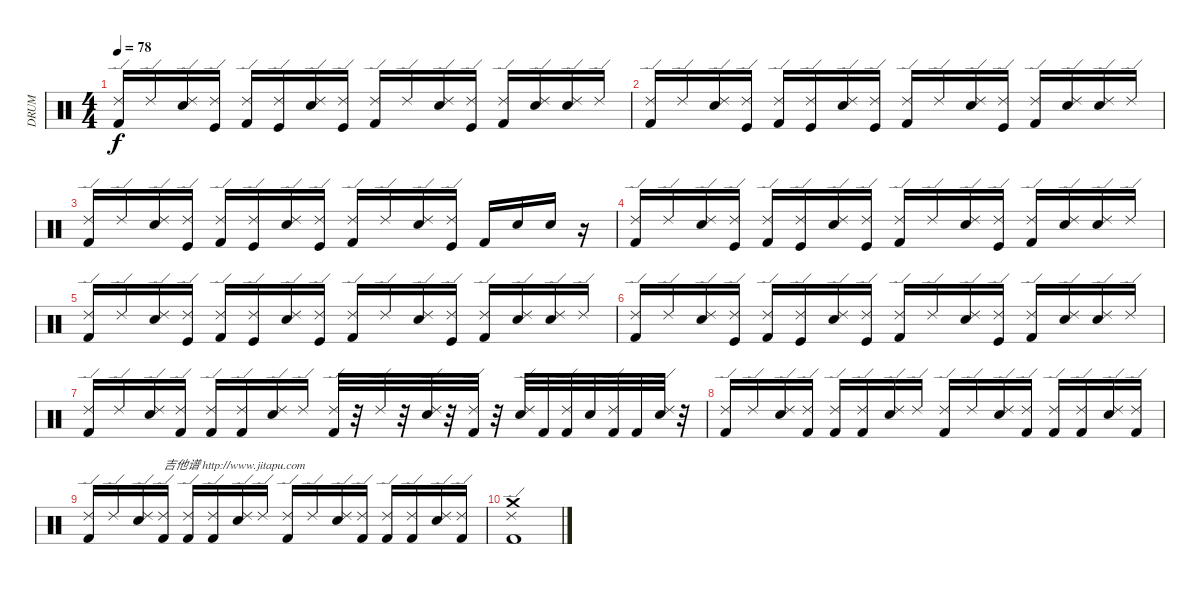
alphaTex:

\track ("DRUM" "DRUM") {instrument percussion}
\staff {score}
\articulation defaults
\ts (4 4)
\tempo 78
\clef neutral
\ks c
("Kick (hit) 2" "Ride (edge) 2").16{dy f} "Ride (edge) 2".16 ("Snare (hit) 2" "Ride (edge) 2").16 ("Kick (hit)" "Ride (edge) 2").16 ("Kick (hit) 2" "Ride (edge) 2").16 ("Kick (hit)" "Ride (edge) 2").16 ("Snare (hit) 2" "Ride (edge) 2").16 ("Kick (hit)" "Ride (edge) 2").16 ("Kick (hit) 2" "Ride (edge) 2").16 "Ride (edge) 2".16 ("Snare (hit) 2" "Ride (edge) 2").16 ("Kick (hit)" "Ride (edge) 2").16 ("Kick (hit) 2" "Ride (edge) 2").16 ("Snare (hit) 2" "Ride (edge) 2").16 ("Snare (hit) 2" "Ride (edge) 2").16 "Ride (edge) 2".16 |
("Kick (hit) 2" "Ride (edge) 2").16 "Ride (edge) 2".16 ("Snare (hit) 2" "Ride (edge) 2").16 ("Kick (hit)" "Ride (edge) 2").16 ("Kick (hit) 2" "Ride (edge) 2").16 ("Kick (hit)" "Ride (edge) 2").16 ("Snare (hit) 2" "Ride (edge) 2").16 ("Kick (hit)" "Ride (edge) 2").16 ("Kick (hit) 2" "Ride (edge) 2").16 "Ride (edge) 2".16 ("Snare (hit) 2" "Ride (edge) 2").16 ("Kick (hit)" "Ride (edge) 2").16 ("Kick (hit) 2" "Ride (edge) 2").16 ("Snare (hit) 2" "Ride (edge) 2").16 ("Snare (hit) 2" "Ride (edge) 2").16 "Ride (edge) 2".16 |
("Kick (hit) 2" "Ride (edge) 2").16 "Ride (edge) 2".16 ("Snare (hit) 2" "Ride (edge) 2").16 ("Kick (hit)" "Ride (edge) 2").16 ("Kick (hit) 2" "Ride (edge) 2").16 ("Kick (hit)" "Ride (edge) 2").16 ("Snare (hit) 2" "Ride (edge) 2").16 ("Kick (hit)" "Ride (edge) 2").16 ("Kick (hit) 2" "Ride (edge) 2").16 "Ride (edge) 2".16 ("Snare (hit) 2" "Ride (edge) 2").16 ("Kick (hit)" "Ride (edge) 2").16 "Kick (hit) 2".16 "Snare (hit) 2".16 "Snare (hit) 2".16 r.16 |
("Kick (hit) 2" "Ride (edge) 2").16 "Ride (edge) 2".16 ("Snare (hit) 2" "Ride (edge) 2").16 ("Kick (hit)" "Ride (edge) 2").16 ("Kick (hit) 2" "Ride (edge) 2").16 ("Kick (hit)" "Ride (edge) 2").16 ("Snare (hit) 2" "Ride (edge) 2").16 ("Kick (hit)" "Ride (edge) 2").16 ("Kick (hit) 2" "Ride (edge) 2").16 "Ride (edge) 2".16 ("Snare (hit) 2" "Ride (edge) 2").16 ("Kick (hit)" "Ride (edge) 2").16 ("Kick (hit) 2" "Ride (edge) 2").16 ("Snare (hit) 2" "Ride (edge) 2").16 ("Snare (hit) 2" "Ride (edge) 2").16 "Ride (edge) 2".16 |
("Kick (hit) 2" "Ride (edge) 2").16 "Ride (edge) 2".16 ("Snare (hit) 2" "Ride (edge) 2").16 ("Kick (hit)" "Ride (edge) 2").16 ("Kick (hit) 2" "Ride (edge) 2").16 ("Kick (hit)" "Ride (edge) 2").16 ("Snare (hit) 2" "Ride (edge) 2").16 ("Kick (hit)" "Ride (edge) 2").16 ("Kick (hit) 2" "Ride (edge) 2").16 "Ride (edge) 2".16 ("Snare (hit) 2" "Ride (edge) 2").16 ("Kick (hit)" "Ride (edge) 2").16 ("Kick (hit) 2" "Ride (edge) 2").16 ("Snare (hit) 2" "Ride (edge) 2").16 ("Snare (hit) 2" "Ride (edge) 2").16 "Ride (edge) 2".16 |
("Kick (hit) 2" "Ride (edge) 2").16 "Ride (edge) 2".16 ("Snare (hit) 2" "Ride (edge) 2").16 ("Kick (hit)" "Ride (edge) 2").16 ("Kick (hit) 2" "Ride (edge) 2").16 ("Kick (hit)" "Ride (edge) 2").16 ("Snare (hit) 2" "Ride (edge) 2").16 ("Kick (hit)" "Ride (edge) 2").16 ("Kick (hit) 2" "Ride (edge) 2").16 "Ride (edge) 2".16 ("Snare (hit) 2" "Ride (edge) 2").16 ("Kick (hit)" "Ride (edge) 2").16 ("Kick (hit) 2" "Ride (edge) 2").16 ("Snare (hit) 2" "Ride (edge) 2").16 ("Snare (hit) 2" "Ride (edge) 2").16 "Ride (edge) 2".16 |
("Kick (hit) 2" "Ride (edge) 2").16 "Ride (edge) 2".16 ("Snare (hit) 2" "Ride (edge) 2").16 ("Kick (hit) 2" "Ride (edge) 2").16 ("Kick (hit) 2" "Ride (edge) 2").16 ("Kick (hit) 2" "Ride (edge) 2").16 ("Snare (hit) 2" "Ride (edge) 2").16 "Ride (edge) 2".16 ("Kick (hit) 2" "Ride (edge) 2").32 r.32 "Ride (edge) 2".32 r.32 ("Snare (hit) 2" "Ride (edge) 2").32 r.32 ("Kick (hit) 2" "Ride (edge) 2").32 r.32 ("Snare (hit) 2" "Ride (edge) 2").32 "Kick (hit) 2".32 ("Kick (hit) 2" "Ride (edge) 2").32 "Snare (hit) 2".32 ("Kick (hit) 2" "Ride (edge) 2").32 "Kick (hit) 2".32 ("Snare (hit) 2" "Ride (edge) 2").32 r.32 |
("Kick (hit) 2" "Ride (edge) 2").16{volume 3} "Ride (edge) 2".16 ("Snare (hit) 2" "Ride (edge) 2").16 ("Kick (hit) 2" "Ride (edge) 2").16 ("Kick (hit) 2" "Ride (edge) 2").16 ("Kick (hit) 2" "Ride (edge) 2").16 ("Snare (hit) 2" "Ride (edge) 2").16 "Ride (edge) 2".16 ("Kick (hit) 2" "Ride (edge) 2").16 "Ride (edge) 2".16 ("Snare (hit) 2" "Ride (edge) 2").16 ("Kick (hit) 2" "Ride (edge) 2").16 ("Kick (hit) 2" "Ride (edge) 2").16 ("Kick (hit) 2" "Ride (edge) 2").16 ("Snare (hit) 2" "Ride (edge) 2").16 ("Kick (hit) 2" "Ride (edge) 2").16 |
("Kick (hit) 2" "Ride (edge) 2").16 "Ride (edge) 2".16 ("Snare (hit) 2" "Ride (edge) 2").16 ("Kick (hit) 2" "Ride (edge) 2").16{txt "吉他谱 http://www.jitapu.com"} ("Kick (hit) 2" "Ride (edge) 2").16 ("Kick (hit) 2" "Ride (edge) 2").16 ("Snare (hit) 2" "Ride (edge) 2").16 "Ride (edge) 2".16 ("Kick (hit) 2" "Ride (edge) 2").16 "Ride (edge) 2".16 ("Snare (hit) 2" "Ride (edge) 2").16 ("Kick (hit) 2" "Ride (edge) 2").16 ("Kick (hit) 2" "Ride (edge) 2").16 ("Kick (hit) 2" "Ride (edge) 2").16 ("Snare (hit) 2" "Ride (edge) 2").16 ("Kick (hit) 2" "Ride (edge) 2").16 |
("Kick (hit) 2" "Crash medium (hit)" "Ride (edge) 2").1
